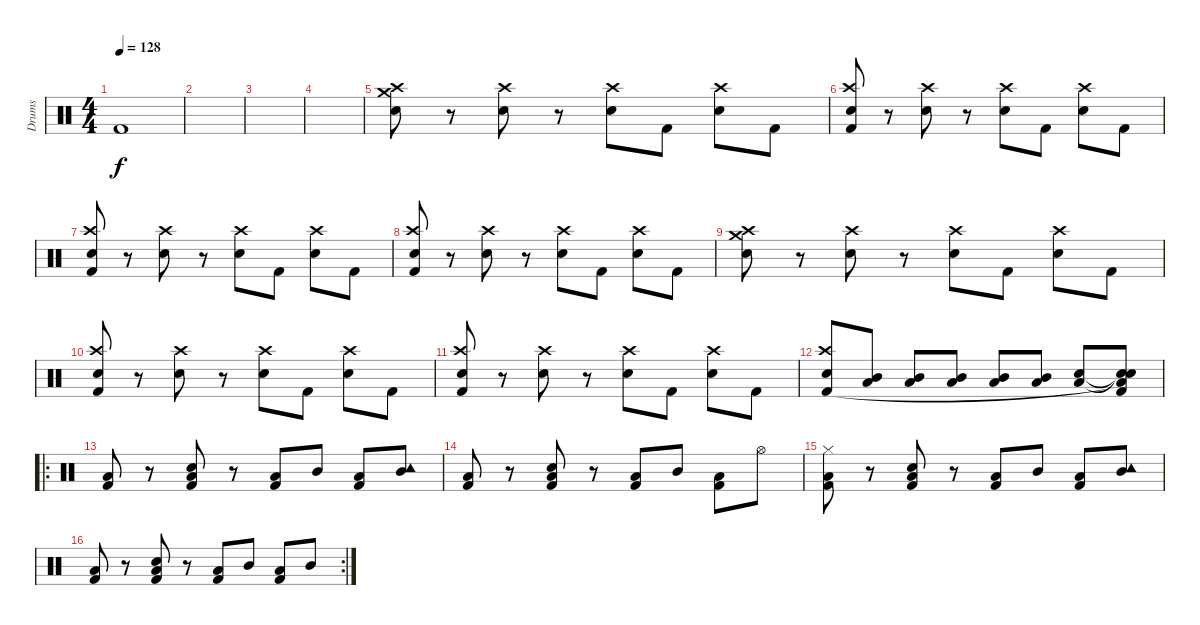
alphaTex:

\track ("Drums" "Drums") {instrument percussion}
\staff {score}
\articulation defaults
\ts (4 4)
\tempo 128
\clef neutral
\ks c "Kick (hit) 2".1{dy f}
|
|
|
|
("Crash high (hit)" "Crash medium (hit)" "Snare (hit) 2").8{volume 13} r.8 ("Crash high (hit)" "Snare (hit) 2").8 r.8 ("Crash high (hit)" "Snare (hit) 2").8 "Kick (hit) 2".8 ("Crash high (hit)" "Snare (hit) 2").8 "Kick (hit) 2".8 |
("Crash high (hit)" "Snare (hit) 2" "Kick (hit) 2").8 r.8 ("Crash high (hit)" "Snare (hit) 2").8 r.8 ("Crash high (hit)" "Snare (hit) 2").8 "Kick (hit) 2".8 ("Crash high (hit)" "Snare (hit) 2").8 "Kick (hit) 2".8 |
("Crash high (hit)" "Snare (hit) 2" "Kick (hit) 2").8 r.8 ("Crash high (hit)" "Snare (hit) 2").8 r.8 ("Crash high (hit)" "Snare (hit) 2").8 "Kick (hit) 2".8 ("Crash high (hit)" "Snare (hit) 2").8 "Kick (hit) 2".8 |
("Crash high (hit)" "Snare (hit) 2" "Kick (hit) 2").8 r.8 ("Crash high (hit)" "Snare (hit) 2").8 r.8 ("Crash high (hit)" "Snare (hit) 2").8 "Kick (hit) 2".8 ("Crash high (hit)" "Snare (hit) 2").8 "Kick (hit) 2".8 |
("Crash high (hit)" "Crash medium (hit)" "Snare (hit) 2").8 r.8 ("Crash high (hit)" "Snare (hit) 2").8 r.8 ("Crash high (hit)" "Snare (hit) 2").8 "Kick (hit) 2".8 ("Crash high (hit)" "Snare (hit) 2").8 "Kick (hit) 2".8 |
("Crash high (hit)" "Snare (hit) 2" "Kick (hit) 2").8 r.8 ("Crash high (hit)" "Snare (hit) 2").8 r.8 ("Crash high (hit)" "Snare (hit) 2").8 "Kick (hit) 2".8 ("Crash high (hit)" "Snare (hit) 2").8 "Kick (hit) 2".8 |
("Crash high (hit)" "Snare (hit) 2" "Kick (hit) 2").8 r.8 ("Crash high (hit)" "Snare (hit) 2").8 r.8 ("Crash high (hit)" "Snare (hit) 2").8 "Kick (hit) 2".8 ("Crash high (hit)" "Snare (hit) 2").8 "Kick (hit) 2".8 |
("Crash high (hit)" "Snare (hit) 2" "Kick (hit) 2").8 ("Mid Tom (hit)" "Low Tom (hit)").8 ("Mid Tom (hit)" "Low Tom (hit)").8 ("Mid Tom (hit)" "Low Tom (hit)").8 ("Mid Tom (hit)" "Low Tom (hit)").8 ("Mid Tom (hit)" "Low Tom (hit)").8 ("Snare (hit) 2" "Low Tom (hit)").8 ("Snare (hit)"{t} "Snare (hit)"{t} "Low Tom (hit)"{t} "Kick (hit) 2").8 |
\ro
("Low Tom (hit)" "Kick (hit) 2").8 r.8 ("Snare (hit) 2" "Low Tom (hit)" "Kick (hit) 2").8 r.8 ("Low Tom (hit)" "Kick (hit) 2").8 "Mid Tom (hit)".8 ("Low Tom (hit)" "Kick (hit) 2").8 ("Tambourine (hit)" "Mid Tom (hit)").8 |
("Low Tom (hit)" "Kick (hit) 2").8 r.8 ("Snare (hit) 2" "Low Tom (hit)" "Kick (hit) 2").8 r.8 ("Low Tom (hit)" "Kick (hit) 2").8 "Mid Tom (hit)".8 ("Low Tom (hit)" "Kick (hit) 2").8 "Hi-Hat (open)".8 |
("Hi-Hat (closed)" "Low Tom (hit)" "Kick (hit) 2").8 r.8 ("Snare (hit) 2" "Low Tom (hit)" "Kick (hit) 2").8 r.8 ("Low Tom (hit)" "Kick (hit) 2").8 "Mid Tom (hit)".8 ("Low Tom (hit)" "Kick (hit) 2").8 ("Tambourine (hit)" "Mid Tom (hit)").8 |
\rc 2
("Low Tom (hit)" "Kick (hit) 2").8 r.8 ("Snare (hit) 2" "Low Tom (hit)" "Kick (hit) 2").8 r.8 ("Low Tom (hit)" "Kick (hit) 2").8 "Mid Tom (hit)".8 ("Low Tom (hit)" "Kick (hit) 2").8 "Mid Tom (hit)".8
